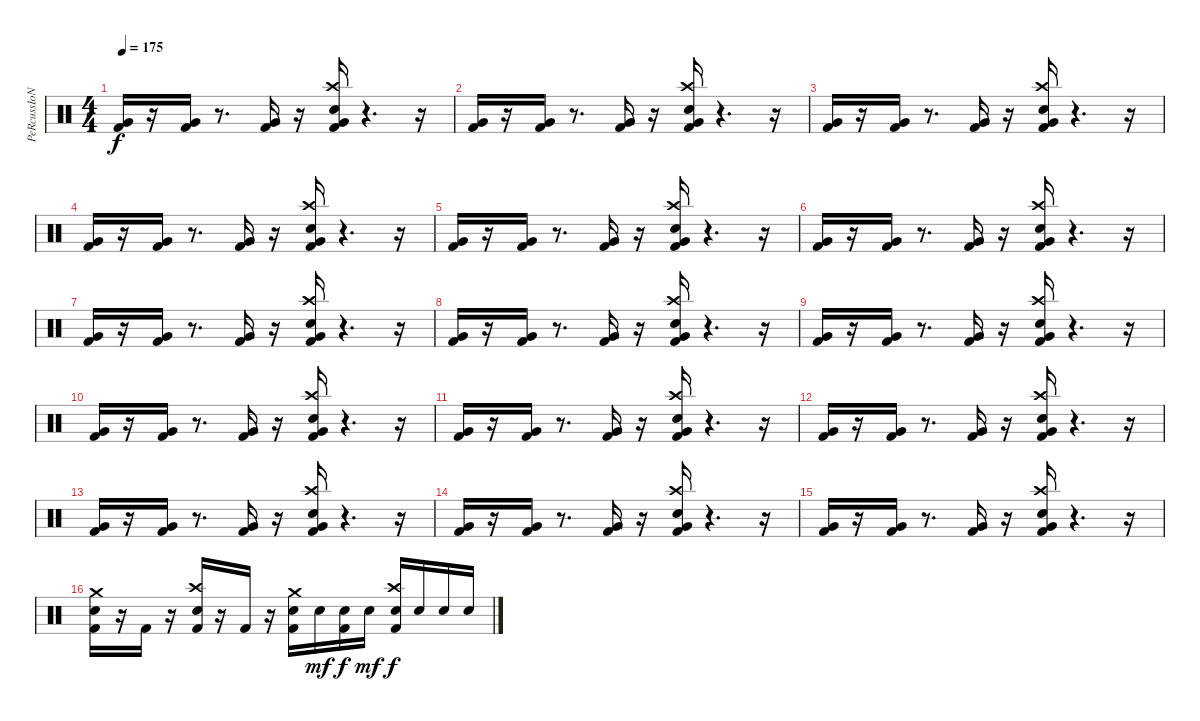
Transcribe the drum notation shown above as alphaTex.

\track ("PeRcussIoNs" "PeRcussIoN") {instrument percussion}
\staff {score}
\articulation defaults
\ts (4 4)
\tempo 175
\clef neutral
\ks c
("Very Low Tom (hit)" "Kick (hit) 2").16{dy f} r.16 ("Very Low Tom (hit)" "Kick (hit) 2").16 r.8{d} ("Kick (hit) 2" "Very Low Tom (hit)").16 r.16 ("Very Low Tom (hit)" "Crash high (hit)" "Electric Snare (hit)" "Kick (hit) 2").16 r.4{d} r.16 |
("Kick (hit) 2" "Very Low Tom (hit)").16 r.16 ("Kick (hit) 2" "Very Low Tom (hit)").16 r.8{d} ("Kick (hit) 2" "Very Low Tom (hit)").16 r.16 ("Kick (hit) 2" "Crash high (hit)" "Electric Snare (hit)" "Very Low Tom (hit)").16 r.4{d} r.16 |
("Kick (hit) 2" "Very Low Tom (hit)").16 r.16 ("Kick (hit) 2" "Very Low Tom (hit)").16 r.8{d} ("Kick (hit) 2" "Very Low Tom (hit)").16 r.16 ("Kick (hit) 2" "Crash high (hit)" "Electric Snare (hit)" "Very Low Tom (hit)").16 r.4{d} r.16 |
("Kick (hit) 2" "Very Low Tom (hit)").16 r.16 ("Kick (hit) 2" "Very Low Tom (hit)").16 r.8{d} ("Kick (hit) 2" "Very Low Tom (hit)").16 r.16 ("Kick (hit) 2" "Crash high (hit)" "Electric Snare (hit)" "Very Low Tom (hit)").16 r.4{d} r.16 |
("Kick (hit) 2" "Very Low Tom (hit)").16 r.16 ("Kick (hit) 2" "Very Low Tom (hit)").16 r.8{d} ("Kick (hit) 2" "Very Low Tom (hit)").16 r.16 ("Kick (hit) 2" "Crash high (hit)" "Electric Snare (hit)" "Very Low Tom (hit)").16 r.4{d} r.16 |
("Kick (hit) 2" "Very Low Tom (hit)").16 r.16 ("Kick (hit) 2" "Very Low Tom (hit)").16 r.8{d} ("Kick (hit) 2" "Very Low Tom (hit)").16 r.16 ("Kick (hit) 2" "Crash high (hit)" "Electric Snare (hit)" "Very Low Tom (hit)").16 r.4{d} r.16 |
("Kick (hit) 2" "Very Low Tom (hit)").16 r.16 ("Kick (hit) 2" "Very Low Tom (hit)").16 r.8{d} ("Kick (hit) 2" "Very Low Tom (hit)").16 r.16 ("Kick (hit) 2" "Crash high (hit)" "Electric Snare (hit)" "Very Low Tom (hit)").16 r.4{d} r.16 |
("Kick (hit) 2" "Very Low Tom (hit)").16 r.16 ("Kick (hit) 2" "Very Low Tom (hit)").16 r.8{d} ("Kick (hit) 2" "Very Low Tom (hit)").16 r.16 ("Kick (hit) 2" "Crash high (hit)" "Electric Snare (hit)" "Very Low Tom (hit)").16 r.4{d} r.16 |
("Kick (hit) 2" "Very Low Tom (hit)").16 r.16 ("Kick (hit) 2" "Very Low Tom (hit)").16 r.8{d} ("Kick (hit) 2" "Very Low Tom (hit)").16 r.16 ("Crash high (hit)" "Electric Snare (hit)" "Kick (hit) 2" "Very Low Tom (hit)").16 r.4{d} r.16 |
("Kick (hit) 2" "Very Low Tom (hit)").16 r.16 ("Kick (hit) 2" "Very Low Tom (hit)").16 r.8{d} ("Kick (hit) 2" "Very Low Tom (hit)").16 r.16 ("Kick (hit) 2" "Crash high (hit)" "Electric Snare (hit)" "Very Low Tom (hit)").16 r.4{d} r.16 |
("Kick (hit) 2" "Very Low Tom (hit)").16 r.16 ("Kick (hit) 2" "Very Low Tom (hit)").16 r.8{d} ("Kick (hit) 2" "Very Low Tom (hit)").16 r.16 ("Kick (hit) 2" "Crash high (hit)" "Electric Snare (hit)" "Very Low Tom (hit)").16 r.4{d} r.16 |
("Kick (hit) 2" "Very Low Tom (hit)").16 r.16 ("Kick (hit) 2" "Very Low Tom (hit)").16 r.8{d} ("Kick (hit) 2" "Very Low Tom (hit)").16 r.16 ("Kick (hit) 2" "Crash high (hit)" "Electric Snare (hit)" "Very Low Tom (hit)").16 r.4{d} r.16 |
("Kick (hit) 2" "Very Low Tom (hit)").16 r.16 ("Kick (hit) 2" "Very Low Tom (hit)").16 r.8{d} ("Kick (hit) 2" "Very Low Tom (hit)").16 r.16 ("Kick (hit) 2" "Crash high (hit)" "Electric Snare (hit)" "Very Low Tom (hit)").16 r.4{d} r.16 |
("Kick (hit) 2" "Very Low Tom (hit)").16 r.16 ("Kick (hit) 2" "Very Low Tom (hit)").16 r.8{d} ("Kick (hit) 2" "Very Low Tom (hit)").16 r.16 ("Kick (hit) 2" "Crash high (hit)" "Electric Snare (hit)" "Very Low Tom (hit)").16 r.4{d} r.16 |
("Kick (hit) 2" "Very Low Tom (hit)").16 r.16 ("Kick (hit) 2" "Very Low Tom (hit)").16 r.8{d} ("Kick (hit) 2" "Very Low Tom (hit)").16 r.16 ("Kick (hit) 2" "Crash high (hit)" "Electric Snare (hit)" "Very Low Tom (hit)").16 r.4{d} r.16 |
("Kick (hit) 2" "Crash medium (hit)" "Electric Snare (hit)").16 r.16 "Kick (hit) 2".16 r.16 ("Kick (hit) 2" "Electric Snare (hit)" "Crash high (hit)").16 r.16 "Kick (hit) 2".16 r.16 ("Kick (hit) 2" "Crash medium (hit)" "Electric Snare (hit)").16 "Electric Snare (hit)".16{dy mf} ("Kick (hit) 2" "Electric Snare (hit)").16{dy f} "Electric Snare (hit)".16{dy mf} ("Kick (hit) 2" "Electric Snare (hit)" "Crash high (hit)").16{dy f} "Electric Snare (hit)".16 "Electric Snare (hit)".16 "Electric Snare (hit)".16
